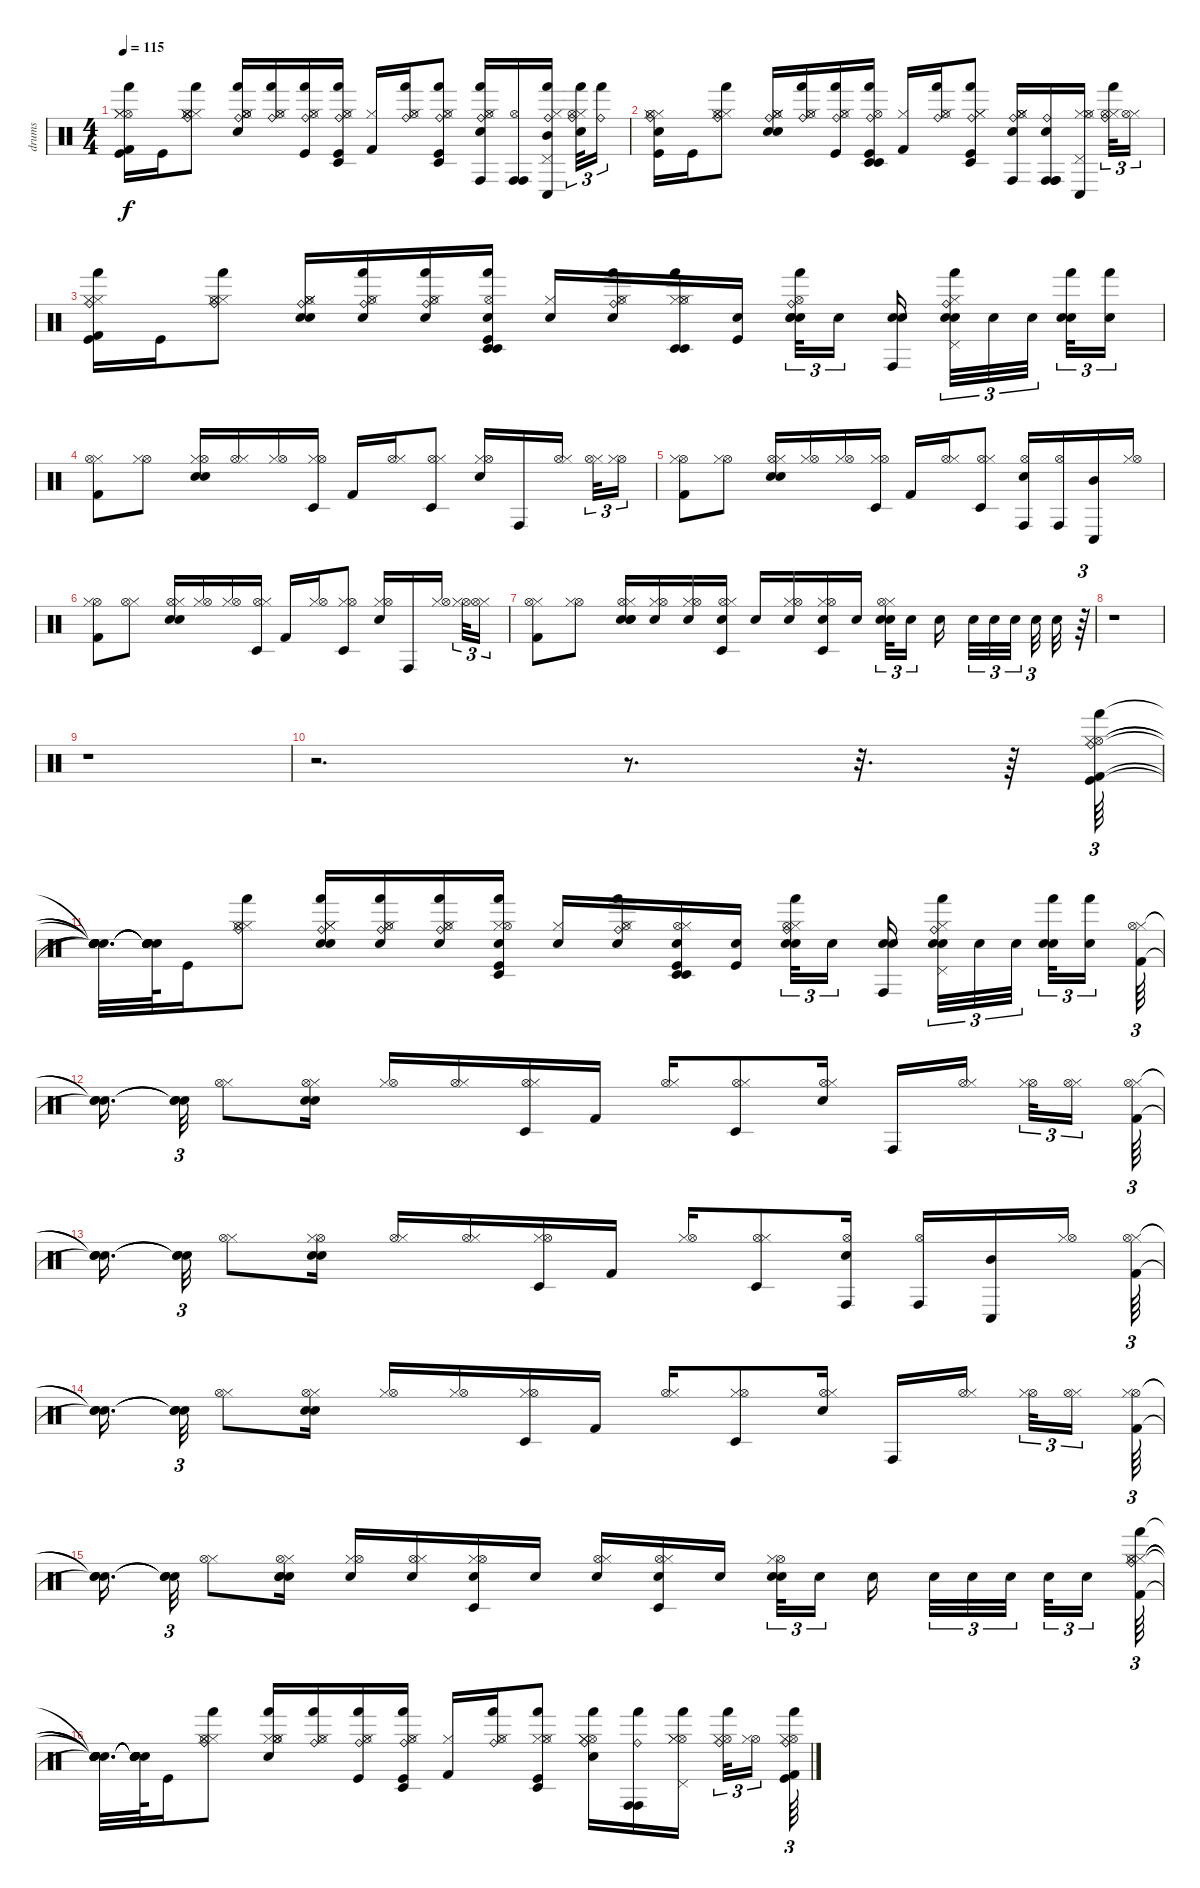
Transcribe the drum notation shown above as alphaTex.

\track ("drums" "drums") {instrument percussion}
\staff {score}
\articulation defaults
\ts (4 4)
\tempo 115
\clef neutral
\ks c
("Hi-Hat (open)" "Hi-Hat (closed)" "Kick (hit) 2" "Hand (hit)" "Kick (hit)" "Hi-Hat (closed)").16{dy f} "Kick (hit)".16 ("Hi-Hat (closed)" "Ride (bell)" "Hi-Hat (closed)" "Hi-Hat (closed)" "Hand (hit)" "Hi-Hat (open)").8 ("Electric Snare (hit)" "Hi-Hat (open)" "Hand (hit)" "Ride (bell)" "Hi-Hat (closed)" "Hi-Hat (open)").16 ("Ride (bell)" "Hi-Hat (open)" "Hi-Hat (closed)" "Hand (hit)").16 ("Kick (hit)" "Hand (hit)" "Ride (bell)" "Hi-Hat (closed)" "Hi-Hat (open)").16 ("Hi-Hat (closed)" "Hi-Hat (open)" "Ride (bell)" "Kick (hit)" "Hand (hit)" "Timbale low (hit)").16 ("Kick (hit) 2" "Hi-Hat (closed)").16 ("Ride (bell)" "Hi-Hat (closed)" "Hi-Hat (open)" "Hand (hit)").16 ("Hi-Hat (closed)" "Hi-Hat (open)" "Hand (hit)" "Kick (hit)" "Timbale low (hit)" "Ride (bell)").8 ("Hi-Hat (closed)" "Hand (hit)" "Ride (bell)" "Conga high (hit)" "Hand Clap (hit)" "Hi-Hat (open)").16 ("Hi-Hat (open)" "Conga high (hit)" "Conga high (hit)").16 ("Hand (hit)" "Mid Tom (hit)" "Hi-Hat (closed)" "Conga low (hit)" "Pedal Hi-Hat (hit)" "Ride (bell)").16 ("Ride (bell)" "Hi-Hat (closed)" "Electric Snare (hit)" "Hand (hit)" "Hi-Hat (open)").32{tu (3 2)} ("Ride (bell)" "Hand (hit)").16{tu (3 2)} |
("Kick (hit)" "Ride (bell)" "Hi-Hat (closed)" "Electric Snare (hit)" "Hi-Hat (open)" "Hi-Hat (closed)").16 "Kick (hit)".16 ("Hi-Hat (closed)" "Ride (bell)" "Hi-Hat (open)" "Hi-Hat (closed)" "Hand (hit)").8 ("Hi-Hat (closed)" "Ride (bell)" "Snare (hit) 2" "Hi-Hat (open)" "Hand Clap (hit)" "Hi-Hat (closed)").16 ("Ride (bell)" "Hi-Hat (closed)" "Hi-Hat (open)" "Hand (hit)").16 ("Hi-Hat (open)" "Hi-Hat (closed)" "Hand (hit)" "Kick (hit)" "Ride (bell)").16 ("Kick (hit)" "Hand (hit)" "Ride (bell)" "Timbale low (hit)" "Timbale low (hit)" "Hi-Hat (open)").16 ("Hi-Hat (closed)" "Kick (hit) 2").16 ("Hi-Hat (open)" "Hi-Hat (closed)" "Ride (bell)" "Hand (hit)").16 ("Ride (bell)" "Hand (hit)" "Timbale low (hit)" "Hi-Hat (closed)" "Hi-Hat (closed)" "Kick (hit)").8 ("Hi-Hat (closed)" "Conga high (hit)" "Hi-Hat (closed)" "Hi-Hat (open)" "Hand Clap (hit)" "Ride (bell)").16 ("Electric Snare (hit)" "Conga high (hit)" "Conga high (hit)" "Conga high (hit)" "Ride (bell)").16 ("Pedal Hi-Hat (hit)" "Conga low (hit)" "Hi-Hat (closed)" "Hi-Hat (closed)" "Hi-Hat (open)").16 ("Hi-Hat (closed)" "Hi-Hat (open)" "Hand (hit)" "Ride (bell)").32{tu (3 2)} ("Hi-Hat (closed)" "Hi-Hat (open)").16{tu (3 2)} |
("Hand (hit)" "Kick (hit) 2" "Ride (bell)" "Kick (hit)" "Hi-Hat (closed)" "Hi-Hat (closed)").16 "Kick (hit)".16 ("Hand (hit)" "Ride (bell)" "Hi-Hat (closed)" "Hi-Hat (closed)" "Hi-Hat (open)").8 ("Electric Snare (hit)" "Hi-Hat (open)" "Ride (bell)" "Hi-Hat (closed)" "Hi-Hat (closed)" "Electric Snare (hit)").16 ("Hand (hit)" "Ride (bell)" "Electric Snare (hit)" "Hi-Hat (closed)" "Hi-Hat (open)").16 ("Hi-Hat (closed)" "Hand (hit)" "Electric Snare (hit)" "Hi-Hat (open)" "Ride (bell)").16 ("Timbale low (hit)" "Timbale low (hit)" "Electric Snare (hit)" "Hi-Hat (open)" "Kick (hit)" "Hand (hit)").16 ("Electric Snare (hit)" "Hi-Hat (closed)").16 ("Electric Snare (hit)" "Hi-Hat (open)" "Hand (hit)" "Hi-Hat (closed)" "Ride (bell)").16 ("Hand (hit)" "Timbale low (hit)" "Hi-Hat (closed)" "Hi-Hat (closed)" "Hi-Hat (open)" "Timbale low (hit)").16 ("Electric Snare (hit)" "Kick (hit)").16 ("Electric Snare (hit)" "Ride (bell)" "Electric Snare (hit)" "Hand Clap (hit)" "Hand (hit)" "Hi-Hat (open)").32{tu (3 2)} "Electric Snare (hit)".16{tu (3 2)} ("Conga high (hit)" "Electric Snare (hit)" "Electric Snare (hit)").16 ("Pedal Hi-Hat (hit)" "Electric Snare (hit)" "Hi-Hat (closed)" "Electric Snare (hit)" "Ride (bell)" "Hand (hit)").32{tu (3 2)} "Electric Snare (hit)".32{tu (3 2)} "Electric Snare (hit)".32{tu (3 2)} ("Electric Snare (hit)" "Electric Snare (hit)" "Hand (hit)").32{tu (3 2)} ("Electric Snare (hit)" "Hand (hit)").16{tu (3 2)} |
("Kick (hit) 2" "Hi-Hat (closed)" "Hi-Hat (open)").8 ("Hi-Hat (open)" "Hi-Hat (closed)").8 ("Electric Snare (hit)" "Hi-Hat (closed)" "Hand Clap (hit)" "Hi-Hat (open)").16 ("Hi-Hat (open)" "Hi-Hat (closed)").16 ("Hi-Hat (closed)" "Hi-Hat (open)").16 ("Hi-Hat (closed)" "Hi-Hat (open)" "Timbale low (hit)").16 "Kick (hit) 2".16 ("Hi-Hat (open)" "Hi-Hat (closed)").16 ("Hi-Hat (open)" "Hi-Hat (closed)" "Timbale low (hit)").8 ("Hi-Hat (closed)" "Hi-Hat (open)" "Hand Clap (hit)").16 "Conga high (hit)".16 ("Hi-Hat (open)" "Hi-Hat (closed)").16 ("Hi-Hat (closed)" "Hi-Hat (open)").32{tu (3 2)} ("Hi-Hat (open)" "Hi-Hat (closed)").16{tu (3 2)} |
("Hi-Hat (open)" "Hi-Hat (closed)" "Kick (hit) 2").8 ("Hi-Hat (open)" "Hi-Hat (closed)").8 ("Hi-Hat (open)" "Hi-Hat (closed)" "Snare (hit) 2" "Hand Clap (hit)").16 ("Hi-Hat (closed)" "Hi-Hat (open)").16 ("Hi-Hat (closed)" "Hi-Hat (open)").16 ("Timbale low (hit)" "Hi-Hat (closed)" "Hi-Hat (open)").16 "Kick (hit) 2".16 ("Hi-Hat (open)" "Hi-Hat (closed)").16 ("Hi-Hat (open)" "Hi-Hat (closed)" "Timbale low (hit)").8 ("Hi-Hat (open)" "Conga high (hit)" "Hand Clap (hit)").16 ("Hi-Hat (open)" "Conga high (hit)").16 ("Conga low (hit)" "Mid Tom (hit)").16 ("Hi-Hat (closed)" "Hi-Hat (open)").16 |
("Kick (hit) 2" "Hi-Hat (open)" "Hi-Hat (closed)").8 ("Hi-Hat (closed)" "Hi-Hat (open)").8 ("Hi-Hat (open)" "Snare (hit) 2" "Hi-Hat (closed)" "Hand Clap (hit)").16 ("Hi-Hat (closed)" "Hi-Hat (open)").16 ("Hi-Hat (closed)" "Hi-Hat (open)").16 ("Hi-Hat (open)" "Hi-Hat (closed)" "Timbale low (hit)").16 "Kick (hit) 2".16 ("Hi-Hat (closed)" "Hi-Hat (open)").16 ("Hi-Hat (closed)" "Hi-Hat (open)" "Timbale low (hit)").8 ("Hi-Hat (closed)" "Hand Clap (hit)" "Hi-Hat (open)").16 "Conga high (hit)".16 ("Hi-Hat (closed)" "Hi-Hat (open)").16 ("Hi-Hat (open)" "Hi-Hat (closed)").32{tu (3 2)} ("Hi-Hat (closed)" "Hi-Hat (open)").16{tu (3 2)} |
("Hi-Hat (closed)" "Hi-Hat (open)" "Kick (hit) 2").8 ("Hi-Hat (open)" "Hi-Hat (closed)").8 ("Electric Snare (hit)" "Hand Clap (hit)" "Electric Snare (hit)" "Hi-Hat (open)" "Hi-Hat (closed)").16 ("Hi-Hat (closed)" "Electric Snare (hit)" "Hi-Hat (open)").16 ("Hi-Hat (closed)" "Hi-Hat (open)" "Electric Snare (hit)").16 ("Hi-Hat (open)" "Hi-Hat (closed)" "Electric Snare (hit)" "Timbale low (hit)").16 "Electric Snare (hit)".16 ("Hi-Hat (closed)" "Hi-Hat (open)" "Electric Snare (hit)").16 ("Hi-Hat (closed)" "Timbale low (hit)" "Electric Snare (hit)" "Hi-Hat (open)").16 "Electric Snare (hit)".16 ("Hand Clap (hit)" "Hi-Hat (closed)" "Hi-Hat (open)" "Electric Snare (hit)").32{tu (3 2)} "Electric Snare (hit)".16{tu (3 2)} "Electric Snare (hit)".16 "Electric Snare (hit)".32{tu (3 2)} "Electric Snare (hit)".32{tu (3 2)} "Electric Snare (hit)".32{tu (3 2)} "Electric Snare (hit)".32{tu (3 2)} "Electric Snare (hit)".32 r.64{tu (3 2)} |
r.1 |
r.1 |
r.2{d} r.8{d} r.32{d} r.64 ("Hand (hit)" "Ride (bell)" "Kick (hit)" "Hi-Hat (open)" "Hi-Hat (closed)" "Kick (hit) 2").64{tu (3 2)} |
("Snare (hit)"{t} "Snare (hit)"{t} "Snare (hit)"{t} "Snare (hit)"{t} "Snare (hit)"{t} "Snare (hit)"{t}).32{d} ("Snare (hit)"{t} "Snare (hit)"{t} "Snare (hit)"{t} "Snare (hit)"{t} "Snare (hit)"{t} "Snare (hit)"{t}).64 "Kick (hit)".16 ("Hi-Hat (closed)" "Hi-Hat (open)" "Ride (bell)" "Hand (hit)" "Hi-Hat (closed)").8 ("Electric Snare (hit)" "Hi-Hat (closed)" "Hi-Hat (closed)" "Electric Snare (hit)" "Hand (hit)" "Ride (bell)").16 ("Ride (bell)" "Hi-Hat (closed)" "Hand (hit)" "Electric Snare (hit)" "Hi-Hat (open)").16 ("Hi-Hat (open)" "Electric Snare (hit)" "Ride (bell)" "Hi-Hat (closed)" "Hand (hit)").16 ("Kick (hit)" "Hand (hit)" "Hi-Hat (closed)" "Hi-Hat (open)" "Electric Snare (hit)" "Timbale low (hit)").16 ("Hi-Hat (closed)" "Electric Snare (hit)").16 ("Hi-Hat (closed)" "Hi-Hat (open)" "Electric Snare (hit)" "Ride (bell)" "Hand (hit)").16 ("Hi-Hat (open)" "Electric Snare (hit)" "Timbale low (hit)" "Hi-Hat (closed)" "Timbale low (hit)" "Kick (hit)").16 ("Electric Snare (hit)" "Kick (hit)").16 ("Hi-Hat (closed)" "Hand Clap (hit)" "Hi-Hat (open)" "Electric Snare (hit)" "Hand (hit)" "Ride (bell)").32{tu (3 2)} "Electric Snare (hit)".16{tu (3 2)} ("Electric Snare (hit)" "Electric Snare (hit)" "Conga high (hit)").16 ("Hi-Hat (closed)" "Electric Snare (hit)" "Electric Snare (hit)" "Pedal Hi-Hat (hit)" "Ride (bell)" "Hand (hit)").32{tu (3 2)} "Electric Snare (hit)".32{tu (3 2)} "Electric Snare (hit)".32{tu (3 2)} ("Electric Snare (hit)" "Electric Snare (hit)" "Hand (hit)").32{tu (3 2)} ("Electric Snare (hit)" "Hand (hit)").16{tu (3 2)} ("Hi-Hat (closed)" "Kick (hit) 2" "Hi-Hat (open)").64{tu (3 2)} |
("Snare (hit)"{t} "Snare (hit)"{t} "Snare (hit)"{t}).16{d} ("Snare (hit)"{t} "Snare (hit)"{t} "Snare (hit)"{t}).32{tu (3 2)} ("Hi-Hat (closed)" "Hi-Hat (open)").8 ("Hi-Hat (closed)" "Electric Snare (hit)" "Hand Clap (hit)" "Hi-Hat (open)").16 ("Hi-Hat (closed)" "Hi-Hat (open)").16 ("Hi-Hat (open)" "Hi-Hat (closed)").16 ("Timbale low (hit)" "Hi-Hat (open)" "Hi-Hat (closed)").16 "Kick (hit) 2".16 ("Hi-Hat (open)" "Hi-Hat (closed)").16 ("Hi-Hat (open)" "Hi-Hat (closed)" "Timbale low (hit)").8 ("Hi-Hat (open)" "Hi-Hat (closed)" "Hand Clap (hit)").16 "Conga high (hit)".16 ("Hi-Hat (open)" "Hi-Hat (closed)").16 ("Hi-Hat (open)" "Hi-Hat (closed)").32{tu (3 2)} ("Hi-Hat (closed)" "Hi-Hat (open)").16{tu (3 2)} ("Hi-Hat (closed)" "Hi-Hat (open)" "Kick (hit) 2").64{tu (3 2)} |
("Snare (hit)"{t} "Snare (hit)"{t} "Snare (hit)"{t}).16{d} ("Snare (hit)"{t} "Snare (hit)"{t} "Snare (hit)"{t}).32{tu (3 2)} ("Hi-Hat (closed)" "Hi-Hat (open)").8 ("Snare (hit) 2" "Hi-Hat (open)" "Hi-Hat (closed)" "Hand Clap (hit)").16 ("Hi-Hat (open)" "Hi-Hat (closed)").16 ("Hi-Hat (open)" "Hi-Hat (closed)").16 ("Timbale low (hit)" "Hi-Hat (closed)" "Hi-Hat (open)").16 "Kick (hit) 2".16 ("Hi-Hat (closed)" "Hi-Hat (open)").16 ("Hi-Hat (open)" "Hi-Hat (closed)" "Timbale low (hit)").8 ("Hi-Hat (open)" "Hand Clap (hit)" "Conga high (hit)").16 ("Hi-Hat (open)" "Conga high (hit)").16 ("Conga low (hit)" "Mid Tom (hit)").16 ("Hi-Hat (closed)" "Hi-Hat (open)").16 ("Hi-Hat (closed)" "Hi-Hat (open)" "Kick (hit) 2").64{tu (3 2)} |
("Snare (hit)"{t} "Snare (hit)"{t} "Snare (hit)"{t}).16{d} ("Snare (hit)"{t} "Snare (hit)"{t} "Snare (hit)"{t}).32{tu (3 2)} ("Hi-Hat (closed)" "Hi-Hat (open)").8 ("Hand Clap (hit)" "Snare (hit) 2" "Hi-Hat (closed)" "Hi-Hat (open)").16 ("Hi-Hat (closed)" "Hi-Hat (open)").16 ("Hi-Hat (closed)" "Hi-Hat (open)").16 ("Timbale low (hit)" "Hi-Hat (closed)" "Hi-Hat (open)").16 "Kick (hit) 2".16 ("Hi-Hat (open)" "Hi-Hat (closed)").16 ("Hi-Hat (closed)" "Hi-Hat (open)" "Timbale low (hit)").8 ("Hi-Hat (open)" "Hi-Hat (closed)" "Hand Clap (hit)").16 "Conga high (hit)".16 ("Hi-Hat (open)" "Hi-Hat (closed)").16 ("Hi-Hat (open)" "Hi-Hat (closed)").32{tu (3 2)} ("Hi-Hat (closed)" "Hi-Hat (open)").16{tu (3 2)} ("Kick (hit) 2" "Hi-Hat (open)" "Hi-Hat (closed)").64{tu (3 2)} |
("Snare (hit)"{t} "Snare (hit)"{t} "Snare (hit)"{t}).16{d} ("Snare (hit)"{t} "Snare (hit)"{t} "Snare (hit)"{t}).32{tu (3 2)} ("Hi-Hat (closed)" "Hi-Hat (open)").8 ("Electric Snare (hit)" "Hi-Hat (closed)" "Electric Snare (hit)" "Hi-Hat (open)" "Hand Clap (hit)").16 ("Hi-Hat (closed)" "Electric Snare (hit)" "Hi-Hat (open)").16 ("Hi-Hat (open)" "Hi-Hat (closed)" "Electric Snare (hit)").16 ("Hi-Hat (closed)" "Hi-Hat (open)" "Timbale low (hit)" "Electric Snare (hit)").16 "Electric Snare (hit)".16 ("Hi-Hat (open)" "Hi-Hat (closed)" "Electric Snare (hit)").16 ("Hi-Hat (open)" "Hi-Hat (closed)" "Electric Snare (hit)" "Timbale low (hit)").16 "Electric Snare (hit)".16 ("Electric Snare (hit)" "Hand Clap (hit)" "Hi-Hat (open)" "Hi-Hat (closed)").32{tu (3 2)} "Electric Snare (hit)".16{tu (3 2)} "Electric Snare (hit)".16 "Electric Snare (hit)".32{tu (3 2)} "Electric Snare (hit)".32{tu (3 2)} "Electric Snare (hit)".32{tu (3 2)} "Electric Snare (hit)".32{tu (3 2)} "Electric Snare (hit)".16{tu (3 2)} ("Hi-Hat (closed)" "Kick (hit) 2" "Ride (bell)" "Hand (hit)" "Hi-Hat (open)" "Hi-Hat (closed)").64{tu (3 2)} |
("Snare (hit)"{t} "Snare (hit)"{t} "Snare (hit)"{t} "Snare (hit)"{t} "Snare (hit)"{t} "Snare (hit)"{t}).32{d} ("Snare (hit)"{t} "Snare (hit)"{t} "Snare (hit)"{t} "Snare (hit)"{t} "Snare (hit)"{t} "Snare (hit)"{t}).64 "Kick (hit)".16 ("Hi-Hat (closed)" "Hi-Hat (open)" "Hi-Hat (closed)" "Ride (bell)" "Hand (hit)").8 ("Hi-Hat (closed)" "Hand (hit)" "Hi-Hat (open)" "Hi-Hat (open)" "Hi-Hat (closed)" "Electric Snare (hit)").16 ("Hand (hit)" "Hi-Hat (closed)" "Ride (bell)" "Hi-Hat (open)").16 ("Hi-Hat (open)" "Hi-Hat (closed)" "Hand (hit)" "Ride (bell)" "Kick (hit)").16 ("Hand (hit)" "Hi-Hat (open)" "Timbale low (hit)" "Kick (hit)" "Hi-Hat (closed)" "Ride (bell)").16 ("Hi-Hat (closed)" "Kick (hit) 2").16 ("Hi-Hat (closed)" "Hi-Hat (open)" "Ride (bell)" "Hand (hit)").16 ("Hand (hit)" "Kick (hit)" "Timbale low (hit)" "Hi-Hat (closed)" "Hi-Hat (open)" "Hi-Hat (closed)").8 ("Hi-Hat (open)" "Hand Clap (hit)" "Hi-Hat (closed)" "Hi-Hat (closed)" "Ride (bell)" "Hand (hit)").16 ("Hand (hit)" "Conga high (hit)" "Ride (bell)" "Conga high (hit)").16 ("Hand (hit)" "Hi-Hat (open)" "Pedal Hi-Hat (hit)" "Hi-Hat (closed)" "Hi-Hat (closed)").16 ("Hand (hit)" "Ride (bell)" "Hi-Hat (open)" "Hi-Hat (closed)").32{tu (3 2)} ("Hi-Hat (open)" "Hi-Hat (closed)").16{tu (3 2)} ("Kick (hit)" "Hi-Hat (open)" "Hi-Hat (closed)" "Kick (hit) 2" "Ride (bell)" "Hand (hit)").64{tu (3 2)}
